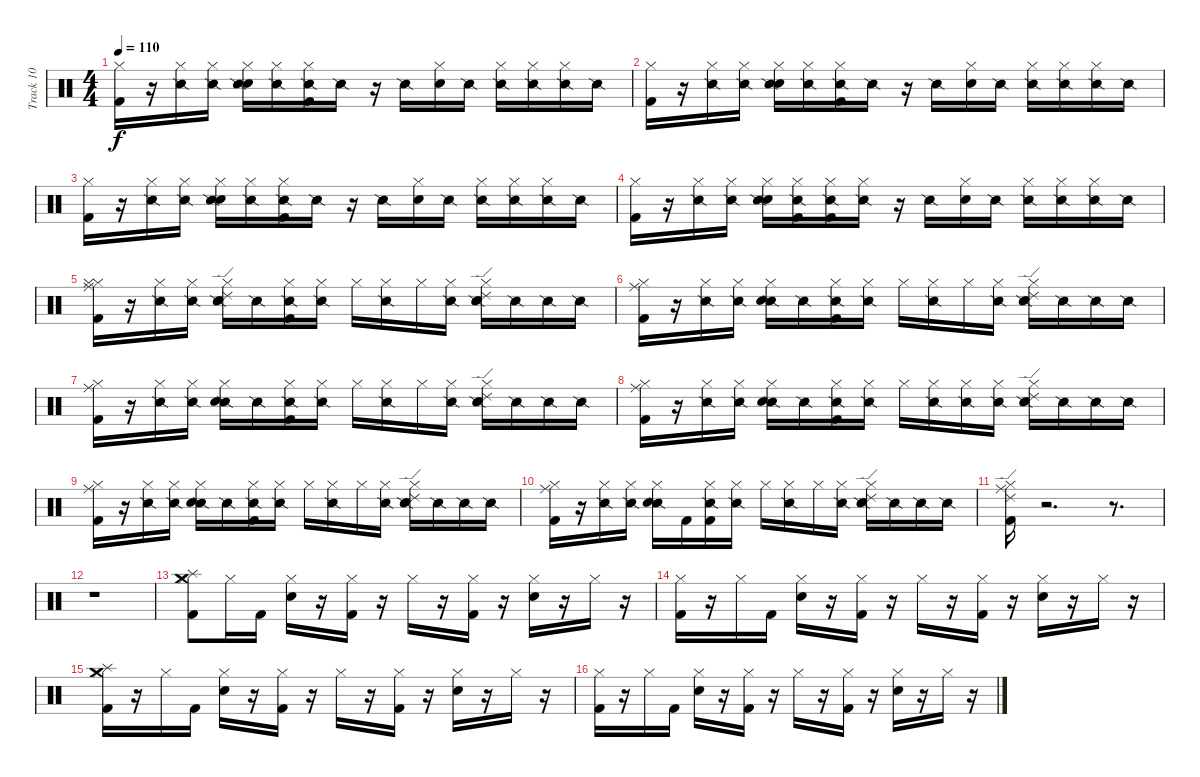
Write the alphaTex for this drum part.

\track ("Track 10" "Track 10") {instrument percussion}
\staff {score}
\articulation defaults
\ts (4 4)
\tempo 110
\clef neutral
\ks c
("Hi-Hat (closed)" "Kick (hit) 2").16{dy f} r.16 ("Hi-Hat (closed)" "Snare (side stick) 2").16 ("Hi-Hat (closed)" "Snare (side stick) 2").16 ("Electric Snare (hit)" "Hi-Hat (closed)" "Snare (side stick) 2").16 ("Hi-Hat (closed)" "Snare (side stick) 2").16 ("Hi-Hat (closed)" "Snare (side stick) 2" "Kick (hit) 2").16 "Snare (side stick) 2".16 r.16 "Snare (side stick) 2".16 ("Electric Snare (hit)" "Hi-Hat (closed)").16 "Snare (side stick) 2".16 ("Hi-Hat (closed)" "Snare (side stick) 2").16 ("Hi-Hat (closed)" "Snare (side stick) 2").16 ("Hi-Hat (closed)" "Snare (side stick) 2").16 "Snare (side stick) 2".16 |
("Hi-Hat (closed)" "Kick (hit) 2").16 r.16 ("Hi-Hat (closed)" "Snare (side stick) 2").16 ("Hi-Hat (closed)" "Snare (side stick) 2").16 ("Electric Snare (hit)" "Hi-Hat (closed)" "Snare (side stick) 2").16 ("Hi-Hat (closed)" "Snare (side stick) 2").16 ("Hi-Hat (closed)" "Snare (side stick) 2" "Kick (hit) 2").16 "Snare (side stick) 2".16 r.16 "Snare (side stick) 2".16 ("Electric Snare (hit)" "Hi-Hat (closed)").16 "Snare (side stick) 2".16 ("Hi-Hat (closed)" "Snare (side stick) 2").16 ("Hi-Hat (closed)" "Snare (side stick) 2").16 ("Hi-Hat (closed)" "Snare (side stick) 2").16 "Snare (side stick) 2".16 |
("Hi-Hat (closed)" "Kick (hit) 2").16 r.16 ("Hi-Hat (closed)" "Snare (side stick) 2").16 ("Hi-Hat (closed)" "Snare (side stick) 2").16 ("Electric Snare (hit)" "Hi-Hat (closed)" "Snare (side stick) 2").16 ("Hi-Hat (closed)" "Snare (side stick) 2").16 ("Hi-Hat (closed)" "Snare (side stick) 2" "Kick (hit) 2").16 "Snare (side stick) 2".16 r.16 "Snare (side stick) 2".16 ("Electric Snare (hit)" "Hi-Hat (closed)").16 "Snare (side stick) 2".16 ("Hi-Hat (closed)" "Snare (side stick) 2").16 ("Hi-Hat (closed)" "Snare (side stick) 2").16 ("Hi-Hat (closed)" "Snare (side stick) 2").16 "Snare (side stick) 2".16 |
("Hi-Hat (closed)" "Kick (hit) 2").16 r.16 ("Hi-Hat (closed)" "Snare (side stick) 2").16 ("Hi-Hat (closed)" "Snare (side stick) 2").16 ("Electric Snare (hit)" "Hi-Hat (closed)" "Snare (side stick) 2").16 ("Hi-Hat (closed)" "Snare (side stick) 2" "Kick (hit) 2").16 ("Hi-Hat (closed)" "Snare (side stick) 2" "Kick (hit) 2").16 ("Hi-Hat (closed)" "Snare (side stick) 2").16 r.16 "Snare (side stick) 2".16 ("Hi-Hat (closed)" "Electric Snare (hit)").16 "Snare (side stick) 2".16 ("Hi-Hat (closed)" "Snare (side stick) 2").16 ("Hi-Hat (closed)" "Snare (side stick) 2").16 ("Hi-Hat (closed)" "Snare (side stick) 2").16 "Snare (side stick) 2".16 |
("Hi-Hat (closed)" "Kick (hit) 2" "Hi-Hat (closed)" "Ride (middle)").16 r.16 ("Snare (side stick) 2" "Hi-Hat (closed)").16 ("Snare (side stick) 2" "Hi-Hat (closed)").16 ("Snare (side stick) 2" "Hi-Hat (closed)" "Electric Snare (hit)" "Ride (edge) 2").16 "Snare (side stick) 2".16 ("Snare (side stick) 2" "Kick (hit) 2" "Hi-Hat (closed)").16 ("Snare (side stick) 2" "Hi-Hat (closed)").16 "Hi-Hat (closed)".16 ("Snare (side stick) 2" "Hi-Hat (closed)").16 "Hi-Hat (closed)".16 ("Snare (side stick) 2" "Hi-Hat (closed)").16 ("Snare (side stick) 2" "Hi-Hat (closed)" "Electric Snare (hit)" "Ride (edge) 2").16 "Snare (side stick) 2".16 "Snare (side stick) 2".16 "Snare (side stick) 2".16 |
("Kick (hit) 2" "Hi-Hat (closed)" "Ride (middle)").16 r.16 ("Snare (side stick) 2" "Hi-Hat (closed)").16 ("Snare (side stick) 2" "Hi-Hat (closed)").16 ("Snare (side stick) 2" "Electric Snare (hit)" "Hi-Hat (closed)").16 "Snare (side stick) 2".16 ("Snare (side stick) 2" "Kick (hit) 2" "Hi-Hat (closed)").16 ("Snare (side stick) 2" "Hi-Hat (closed)").16 "Hi-Hat (closed)".16 ("Snare (side stick) 2" "Hi-Hat (closed)").16 "Hi-Hat (closed)".16 ("Snare (side stick) 2" "Hi-Hat (closed)").16 ("Snare (side stick) 2" "Hi-Hat (closed)" "Electric Snare (hit)" "Ride (edge) 2").16 "Snare (side stick) 2".16 "Snare (side stick) 2".16 "Snare (side stick) 2".16 |
("Kick (hit) 2" "Hi-Hat (closed)" "Ride (middle)").16 r.16 ("Snare (side stick) 2" "Hi-Hat (closed)").16 ("Snare (side stick) 2" "Hi-Hat (closed)").16 ("Snare (side stick) 2" "Electric Snare (hit)" "Hi-Hat (closed)").16 "Snare (side stick) 2".16 ("Snare (side stick) 2" "Kick (hit) 2" "Hi-Hat (closed)").16 ("Snare (side stick) 2" "Hi-Hat (closed)").16 "Hi-Hat (closed)".16 ("Snare (side stick) 2" "Hi-Hat (closed)").16 "Hi-Hat (closed)".16 ("Snare (side stick) 2" "Hi-Hat (closed)").16 ("Snare (side stick) 2" "Hi-Hat (closed)" "Electric Snare (hit)" "Ride (edge) 2").16 "Snare (side stick) 2".16 "Snare (side stick) 2".16 "Snare (side stick) 2".16 |
("Kick (hit) 2" "Hi-Hat (closed)" "Ride (middle)").16 r.16 ("Snare (side stick) 2" "Hi-Hat (closed)").16 ("Snare (side stick) 2" "Hi-Hat (closed)").16 ("Snare (side stick) 2" "Electric Snare (hit)" "Hi-Hat (closed)").16 "Snare (side stick) 2".16 ("Snare (side stick) 2" "Kick (hit) 2" "Hi-Hat (closed)").16 ("Snare (side stick) 2" "Hi-Hat (closed)").16 "Hi-Hat (closed)".16 ("Snare (side stick) 2" "Hi-Hat (closed)").16 ("Snare (side stick) 2" "Hi-Hat (closed)").16 ("Snare (side stick) 2" "Hi-Hat (closed)").16 ("Snare (side stick) 2" "Hi-Hat (closed)" "Electric Snare (hit)" "Ride (edge) 2").16 "Snare (side stick) 2".16 "Snare (side stick) 2".16 "Snare (side stick) 2".16 |
("Kick (hit) 2" "Hi-Hat (closed)" "Ride (middle)").16 r.16 ("Snare (side stick) 2" "Hi-Hat (closed)").16 ("Snare (side stick) 2" "Hi-Hat (closed)").16 ("Snare (side stick) 2" "Hi-Hat (closed)" "Electric Snare (hit)").16 "Snare (side stick) 2".16 ("Snare (side stick) 2" "Kick (hit) 2" "Hi-Hat (closed)").16 ("Snare (side stick) 2" "Hi-Hat (closed)").16 "Hi-Hat (closed)".16 ("Snare (side stick) 2" "Hi-Hat (closed)").16 "Hi-Hat (closed)".16 ("Snare (side stick) 2" "Hi-Hat (closed)").16 ("Snare (side stick) 2" "Hi-Hat (closed)" "Electric Snare (hit)" "Ride (edge) 2").16 "Snare (side stick) 2".16 "Snare (side stick) 2".16 "Snare (side stick) 2".16 |
("Kick (hit) 2" "Hi-Hat (closed)" "Ride (middle)").16 r.16 ("Snare (side stick) 2" "Hi-Hat (closed)").16 ("Snare (side stick) 2" "Hi-Hat (closed)").16 ("Snare (side stick) 2" "Hi-Hat (closed)" "Electric Snare (hit)").16 "Kick (hit) 2".16 ("Snare (side stick) 2" "Kick (hit) 2" "Hi-Hat (closed)").16 ("Snare (side stick) 2" "Hi-Hat (closed)").16 "Hi-Hat (closed)".16 ("Snare (side stick) 2" "Hi-Hat (closed)").16 "Hi-Hat (closed)".16 ("Snare (side stick) 2" "Hi-Hat (closed)").16 ("Snare (side stick) 2" "Electric Snare (hit)" "Hi-Hat (closed)" "Ride (edge) 2").16 "Snare (side stick) 2".16 "Snare (side stick) 2".16 "Snare (side stick) 2".16 |
("Kick (hit) 2" "Hi-Hat (closed)" "Ride (middle)" "Ride (edge) 2").16 r.2{d} r.8{d} |
r.1 |
("Kick (hit) 2" "Hi-Hat (closed)" "Splash (hit)" "Crash medium (hit)").8 "Hi-Hat (closed)".16 "Kick (hit) 2".16 ("Snare (hit) 2" "Hi-Hat (closed)").16 r.16 ("Kick (hit) 2" "Hi-Hat (closed)").16 r.16 "Hi-Hat (closed)".16 r.16 ("Kick (hit) 2" "Hi-Hat (closed)").16 r.16 ("Snare (hit) 2" "Hi-Hat (closed)").16 r.16 "Hi-Hat (closed)".16 r.16 |
("Kick (hit) 2" "Hi-Hat (closed)").16 r.16 "Hi-Hat (closed)".16 "Kick (hit) 2".16 ("Snare (hit) 2" "Hi-Hat (closed)").16 r.16 ("Kick (hit) 2" "Hi-Hat (closed)").16 r.16 "Hi-Hat (closed)".16 r.16 ("Kick (hit) 2" "Hi-Hat (closed)").16 r.16 ("Snare (hit) 2" "Hi-Hat (closed)").16 r.16 "Hi-Hat (closed)".16 r.16 |
("Kick (hit) 2" "Hi-Hat (closed)" "Splash (hit)" "Crash medium (hit)").16 r.16 "Hi-Hat (closed)".16 "Kick (hit) 2".16 ("Snare (hit) 2" "Hi-Hat (closed)").16 r.16 ("Kick (hit) 2" "Hi-Hat (closed)").16 r.16 "Hi-Hat (closed)".16 r.16 ("Kick (hit) 2" "Hi-Hat (closed)").16 r.16 ("Snare (hit) 2" "Hi-Hat (closed)").16 r.16 "Hi-Hat (closed)".16 r.16 |
("Kick (hit) 2" "Hi-Hat (closed)").16 r.16 "Hi-Hat (closed)".16 "Kick (hit) 2".16 ("Snare (hit) 2" "Hi-Hat (closed)").16 r.16 ("Kick (hit) 2" "Hi-Hat (closed)").16 r.16 "Hi-Hat (closed)".16 r.16 ("Kick (hit) 2" "Hi-Hat (closed)").16 r.16 ("Snare (hit) 2" "Hi-Hat (closed)").16 r.16 "Hi-Hat (closed)".16 r.16
